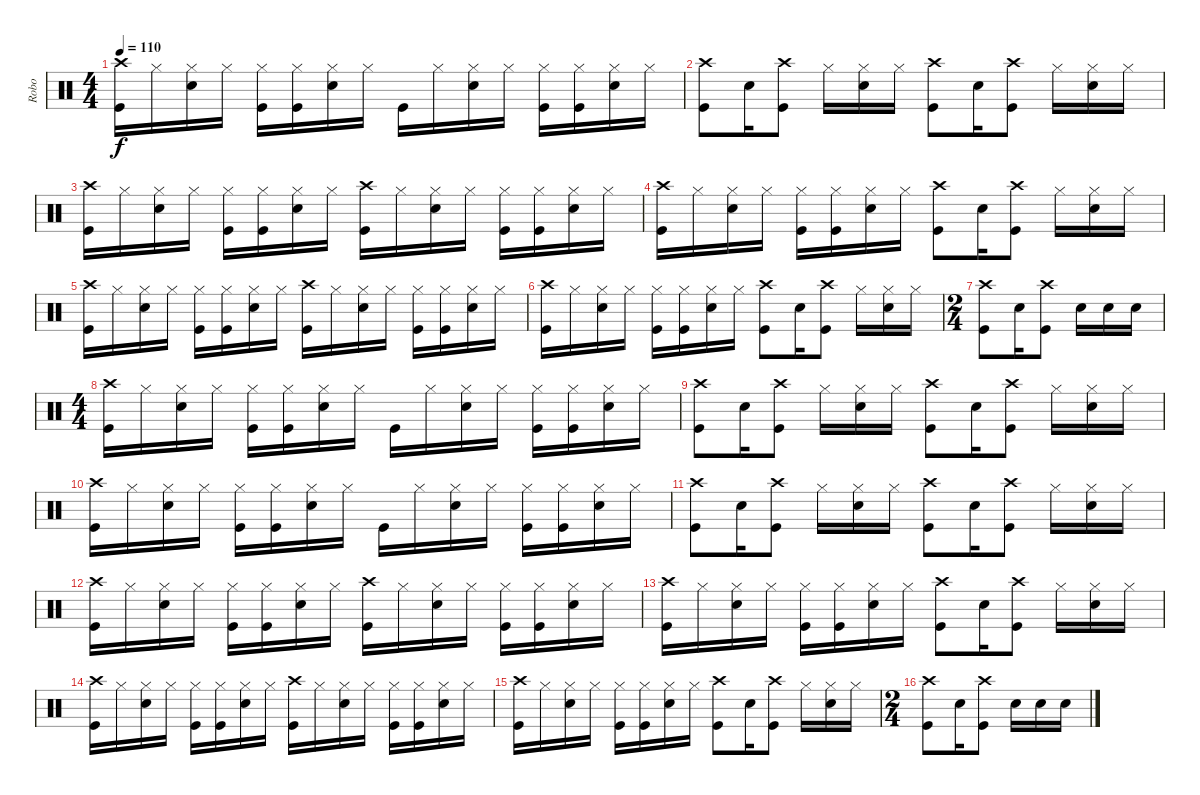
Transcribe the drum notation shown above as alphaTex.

\track ("Robo" "Robo") {instrument percussion}
\staff {score}
\articulation defaults
\ts (4 4)
\tempo 110
\clef neutral
\ks c
("Crash high (hit)" "Kick (hit)").16{dy f} "Hi-Hat (closed)".16 ("Hi-Hat (closed)" "Snare (hit) 2").16 "Hi-Hat (closed)".16 ("Hi-Hat (closed)" "Kick (hit)").16 ("Hi-Hat (closed)" "Kick (hit)").16 ("Hi-Hat (closed)" "Snare (hit) 2").16 "Hi-Hat (closed)".16 "Kick (hit)".16 "Hi-Hat (closed)".16 ("Hi-Hat (closed)" "Snare (hit) 2").16 "Hi-Hat (closed)".16 ("Hi-Hat (closed)" "Kick (hit)").16 ("Hi-Hat (closed)" "Kick (hit)").16 ("Hi-Hat (closed)" "Snare (hit) 2").16 "Hi-Hat (closed)".16 |
("Crash high (hit)" "Kick (hit)").8 "Snare (hit) 2".16 ("Crash high (hit)" "Kick (hit)").8 "Hi-Hat (closed)".16 ("Hi-Hat (closed)" "Snare (hit) 2").16 "Hi-Hat (closed)".16 ("Crash high (hit)" "Kick (hit)").8 "Snare (hit) 2".16 ("Crash high (hit)" "Kick (hit)").8 "Hi-Hat (closed)".16 ("Hi-Hat (closed)" "Snare (hit) 2").16 "Hi-Hat (closed)".16 |
("Crash high (hit)" "Kick (hit)").16 "Hi-Hat (closed)".16 ("Hi-Hat (closed)" "Snare (hit) 2").16 "Hi-Hat (closed)".16 ("Hi-Hat (closed)" "Kick (hit)").16 ("Hi-Hat (closed)" "Kick (hit)").16 ("Hi-Hat (closed)" "Snare (hit) 2").16 "Hi-Hat (closed)".16 ("Crash high (hit)" "Kick (hit)").16 "Hi-Hat (closed)".16 ("Hi-Hat (closed)" "Snare (hit) 2").16 "Hi-Hat (closed)".16 ("Hi-Hat (closed)" "Kick (hit)").16 ("Hi-Hat (closed)" "Kick (hit)").16 ("Hi-Hat (closed)" "Snare (hit) 2").16 "Hi-Hat (closed)".16 |
("Crash high (hit)" "Kick (hit)").16 "Hi-Hat (closed)".16 ("Hi-Hat (closed)" "Snare (hit) 2").16 "Hi-Hat (closed)".16 ("Hi-Hat (closed)" "Kick (hit)").16 ("Hi-Hat (closed)" "Kick (hit)").16 ("Hi-Hat (closed)" "Snare (hit) 2").16 "Hi-Hat (closed)".16 ("Crash high (hit)" "Kick (hit)").8 "Snare (hit) 2".16 ("Crash high (hit)" "Kick (hit)").8 "Hi-Hat (closed)".16 ("Hi-Hat (closed)" "Snare (hit) 2").16 "Hi-Hat (closed)".16 |
("Crash high (hit)" "Kick (hit)").16 "Hi-Hat (closed)".16 ("Hi-Hat (closed)" "Snare (hit) 2").16 "Hi-Hat (closed)".16 ("Hi-Hat (closed)" "Kick (hit)").16 ("Hi-Hat (closed)" "Kick (hit)").16 ("Hi-Hat (closed)" "Snare (hit) 2").16 "Hi-Hat (closed)".16 ("Crash high (hit)" "Kick (hit)").16 "Hi-Hat (closed)".16 ("Hi-Hat (closed)" "Snare (hit) 2").16 "Hi-Hat (closed)".16 ("Hi-Hat (closed)" "Kick (hit)").16 ("Hi-Hat (closed)" "Kick (hit)").16 ("Hi-Hat (closed)" "Snare (hit) 2").16 "Hi-Hat (closed)".16 |
("Crash high (hit)" "Kick (hit)").16 "Hi-Hat (closed)".16 ("Hi-Hat (closed)" "Snare (hit) 2").16 "Hi-Hat (closed)".16 ("Hi-Hat (closed)" "Kick (hit)").16 ("Hi-Hat (closed)" "Kick (hit)").16 ("Hi-Hat (closed)" "Snare (hit) 2").16 "Hi-Hat (closed)".16 ("Crash high (hit)" "Kick (hit)").8 "Snare (hit) 2".16 ("Crash high (hit)" "Kick (hit)").8 "Hi-Hat (closed)".16 ("Hi-Hat (closed)" "Snare (hit) 2").16 "Hi-Hat (closed)".16 |
\ts (2 4)
("Crash high (hit)" "Kick (hit)").8 "Snare (hit) 2".16 ("Crash high (hit)" "Kick (hit)").8 "Snare (hit) 2".16 "Snare (hit) 2".16 "Snare (hit) 2".16 |
\ts (4 4)
("Crash high (hit)" "Kick (hit)").16 "Hi-Hat (closed)".16 ("Hi-Hat (closed)" "Snare (hit) 2").16 "Hi-Hat (closed)".16 ("Hi-Hat (closed)" "Kick (hit)").16 ("Hi-Hat (closed)" "Kick (hit)").16 ("Hi-Hat (closed)" "Snare (hit) 2").16 "Hi-Hat (closed)".16 "Kick (hit)".16 "Hi-Hat (closed)".16 ("Hi-Hat (closed)" "Snare (hit) 2").16 "Hi-Hat (closed)".16 ("Hi-Hat (closed)" "Kick (hit)").16 ("Hi-Hat (closed)" "Kick (hit)").16 ("Hi-Hat (closed)" "Snare (hit) 2").16 "Hi-Hat (closed)".16 |
("Crash high (hit)" "Kick (hit)").8 "Snare (hit) 2".16 ("Crash high (hit)" "Kick (hit)").8 "Hi-Hat (closed)".16 ("Hi-Hat (closed)" "Snare (hit) 2").16 "Hi-Hat (closed)".16 ("Crash high (hit)" "Kick (hit)").8 "Snare (hit) 2".16 ("Crash high (hit)" "Kick (hit)").8 "Hi-Hat (closed)".16 ("Hi-Hat (closed)" "Snare (hit) 2").16 "Hi-Hat (closed)".16 |
("Crash high (hit)" "Kick (hit)").16 "Hi-Hat (closed)".16 ("Hi-Hat (closed)" "Snare (hit) 2").16 "Hi-Hat (closed)".16 ("Hi-Hat (closed)" "Kick (hit)").16 ("Hi-Hat (closed)" "Kick (hit)").16 ("Hi-Hat (closed)" "Snare (hit) 2").16 "Hi-Hat (closed)".16 "Kick (hit)".16 "Hi-Hat (closed)".16 ("Hi-Hat (closed)" "Snare (hit) 2").16 "Hi-Hat (closed)".16 ("Hi-Hat (closed)" "Kick (hit)").16 ("Hi-Hat (closed)" "Kick (hit)").16 ("Hi-Hat (closed)" "Snare (hit) 2").16 "Hi-Hat (closed)".16 |
("Crash high (hit)" "Kick (hit)").8 "Snare (hit) 2".16 ("Crash high (hit)" "Kick (hit)").8 "Hi-Hat (closed)".16 ("Hi-Hat (closed)" "Snare (hit) 2").16 "Hi-Hat (closed)".16 ("Crash high (hit)" "Kick (hit)").8 "Snare (hit) 2".16 ("Crash high (hit)" "Kick (hit)").8 "Hi-Hat (closed)".16 ("Hi-Hat (closed)" "Snare (hit) 2").16 "Hi-Hat (closed)".16 |
("Crash high (hit)" "Kick (hit)").16 "Hi-Hat (closed)".16 ("Hi-Hat (closed)" "Snare (hit) 2").16 "Hi-Hat (closed)".16 ("Hi-Hat (closed)" "Kick (hit)").16 ("Hi-Hat (closed)" "Kick (hit)").16 ("Hi-Hat (closed)" "Snare (hit) 2").16 "Hi-Hat (closed)".16 ("Crash high (hit)" "Kick (hit)").16 "Hi-Hat (closed)".16 ("Hi-Hat (closed)" "Snare (hit) 2").16 "Hi-Hat (closed)".16 ("Hi-Hat (closed)" "Kick (hit)").16 ("Hi-Hat (closed)" "Kick (hit)").16 ("Hi-Hat (closed)" "Snare (hit) 2").16 "Hi-Hat (closed)".16 |
("Crash high (hit)" "Kick (hit)").16 "Hi-Hat (closed)".16 ("Hi-Hat (closed)" "Snare (hit) 2").16 "Hi-Hat (closed)".16 ("Hi-Hat (closed)" "Kick (hit)").16 ("Hi-Hat (closed)" "Kick (hit)").16 ("Hi-Hat (closed)" "Snare (hit) 2").16 "Hi-Hat (closed)".16 ("Crash high (hit)" "Kick (hit)").8 "Snare (hit) 2".16 ("Crash high (hit)" "Kick (hit)").8 "Hi-Hat (closed)".16 ("Hi-Hat (closed)" "Snare (hit) 2").16 "Hi-Hat (closed)".16 |
("Crash high (hit)" "Kick (hit)").16 "Hi-Hat (closed)".16 ("Hi-Hat (closed)" "Snare (hit) 2").16 "Hi-Hat (closed)".16 ("Hi-Hat (closed)" "Kick (hit)").16 ("Hi-Hat (closed)" "Kick (hit)").16 ("Hi-Hat (closed)" "Snare (hit) 2").16 "Hi-Hat (closed)".16 ("Crash high (hit)" "Kick (hit)").16 "Hi-Hat (closed)".16 ("Hi-Hat (closed)" "Snare (hit) 2").16 "Hi-Hat (closed)".16 ("Hi-Hat (closed)" "Kick (hit)").16 ("Hi-Hat (closed)" "Kick (hit)").16 ("Hi-Hat (closed)" "Snare (hit) 2").16 "Hi-Hat (closed)".16 |
("Crash high (hit)" "Kick (hit)").16 "Hi-Hat (closed)".16 ("Hi-Hat (closed)" "Snare (hit) 2").16 "Hi-Hat (closed)".16 ("Hi-Hat (closed)" "Kick (hit)").16 ("Hi-Hat (closed)" "Kick (hit)").16 ("Hi-Hat (closed)" "Snare (hit) 2").16 "Hi-Hat (closed)".16 ("Crash high (hit)" "Kick (hit)").8 "Snare (hit) 2".16 ("Crash high (hit)" "Kick (hit)").8 "Hi-Hat (closed)".16 ("Hi-Hat (closed)" "Snare (hit) 2").16 "Hi-Hat (closed)".16 |
\ts (2 4)
("Crash high (hit)" "Kick (hit)").8 "Snare (hit) 2".16 ("Crash high (hit)" "Kick (hit)").8 "Snare (hit) 2".16 "Snare (hit) 2".16 "Snare (hit) 2".16
